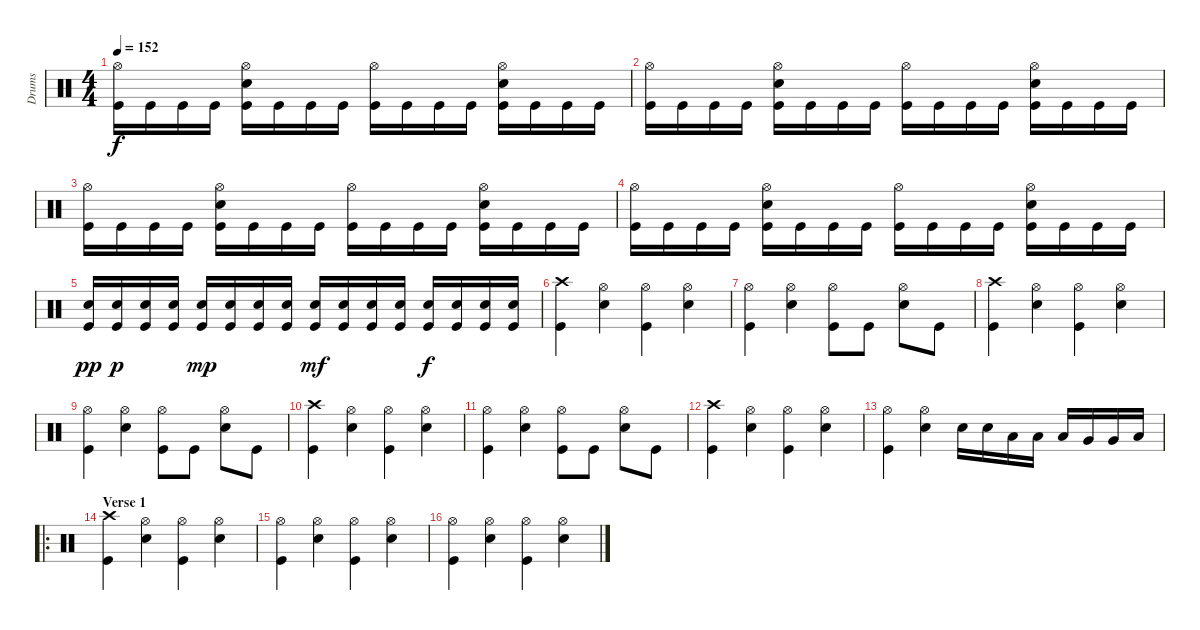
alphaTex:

\track ("Drums" "Drums") {instrument percussion}
\staff {score}
\articulation defaults
\ts (4 4)
\tempo 152
\clef neutral
\ks c
("Hi-Hat (open)" "Kick (hit)").16{dy f} "Kick (hit)".16 "Kick (hit)".16 "Kick (hit)".16 ("Hi-Hat (open)" "Snare (hit) 2" "Kick (hit)").16 "Kick (hit)".16 "Kick (hit)".16 "Kick (hit)".16 ("Hi-Hat (open)" "Kick (hit)").16 "Kick (hit)".16 "Kick (hit)".16 "Kick (hit)".16 ("Hi-Hat (open)" "Snare (hit) 2" "Kick (hit)").16 "Kick (hit)".16 "Kick (hit)".16 "Kick (hit)".16 |
("Hi-Hat (open)" "Kick (hit)").16 "Kick (hit)".16 "Kick (hit)".16 "Kick (hit)".16 ("Hi-Hat (open)" "Snare (hit) 2" "Kick (hit)").16 "Kick (hit)".16 "Kick (hit)".16 "Kick (hit)".16 ("Hi-Hat (open)" "Kick (hit)").16 "Kick (hit)".16 "Kick (hit)".16 "Kick (hit)".16 ("Hi-Hat (open)" "Snare (hit) 2" "Kick (hit)").16 "Kick (hit)".16 "Kick (hit)".16 "Kick (hit)".16 |
("Hi-Hat (open)" "Kick (hit)").16 "Kick (hit)".16 "Kick (hit)".16 "Kick (hit)".16 ("Hi-Hat (open)" "Snare (hit) 2" "Kick (hit)").16 "Kick (hit)".16 "Kick (hit)".16 "Kick (hit)".16 ("Hi-Hat (open)" "Kick (hit)").16 "Kick (hit)".16 "Kick (hit)".16 "Kick (hit)".16 ("Hi-Hat (open)" "Snare (hit) 2" "Kick (hit)").16 "Kick (hit)".16 "Kick (hit)".16 "Kick (hit)".16 |
("Hi-Hat (open)" "Kick (hit)").16 "Kick (hit)".16 "Kick (hit)".16 "Kick (hit)".16 ("Hi-Hat (open)" "Snare (hit) 2" "Kick (hit)").16 "Kick (hit)".16 "Kick (hit)".16 "Kick (hit)".16 ("Hi-Hat (open)" "Kick (hit)").16 "Kick (hit)".16 "Kick (hit)".16 "Kick (hit)".16 ("Hi-Hat (open)" "Snare (hit) 2" "Kick (hit)").16 "Kick (hit)".16 "Kick (hit)".16 "Kick (hit)".16 |
("Snare (hit) 2" "Kick (hit)").16{dy pp} ("Snare (hit) 2" "Kick (hit)").16{dy p} ("Snare (hit) 2" "Kick (hit)").16 ("Snare (hit) 2" "Kick (hit)").16 ("Snare (hit) 2" "Kick (hit)").16{dy mp} ("Snare (hit) 2" "Kick (hit)").16 ("Snare (hit) 2" "Kick (hit)").16 ("Snare (hit) 2" "Kick (hit)").16 ("Snare (hit) 2" "Kick (hit)").16{dy mf} ("Snare (hit) 2" "Kick (hit)").16 ("Snare (hit) 2" "Kick (hit)").16 ("Snare (hit) 2" "Kick (hit)").16 ("Snare (hit) 2" "Kick (hit)").16{dy f} ("Snare (hit) 2" "Kick (hit)").16 ("Snare (hit) 2" "Kick (hit)").16 ("Snare (hit) 2" "Kick (hit)").16 |
("Crash high (hit)" "Kick (hit)").4 ("Hi-Hat (open)" "Snare (hit) 2").4 ("Hi-Hat (open)" "Kick (hit)").4 ("Hi-Hat (open)" "Snare (hit) 2").4 |
("Hi-Hat (open)" "Kick (hit)").4 ("Hi-Hat (open)" "Snare (hit) 2").4 ("Hi-Hat (open)" "Kick (hit)").8 "Kick (hit)".8 ("Hi-Hat (open)" "Snare (hit) 2").8 "Kick (hit)".8 |
("Crash high (hit)" "Kick (hit)").4 ("Hi-Hat (open)" "Snare (hit) 2").4 ("Hi-Hat (open)" "Kick (hit)").4 ("Hi-Hat (open)" "Snare (hit) 2").4 |
("Hi-Hat (open)" "Kick (hit)").4 ("Hi-Hat (open)" "Snare (hit) 2").4 ("Hi-Hat (open)" "Kick (hit)").8 "Kick (hit)".8 ("Hi-Hat (open)" "Snare (hit) 2").8 "Kick (hit)".8 |
("Crash high (hit)" "Kick (hit)").4 ("Hi-Hat (open)" "Snare (hit) 2").4 ("Hi-Hat (open)" "Kick (hit)").4 ("Hi-Hat (open)" "Snare (hit) 2").4 |
("Hi-Hat (open)" "Kick (hit)").4 ("Hi-Hat (open)" "Snare (hit) 2").4 ("Hi-Hat (open)" "Kick (hit)").8 "Kick (hit)".8 ("Hi-Hat (open)" "Snare (hit) 2").8 "Kick (hit)".8 |
("Crash high (hit)" "Kick (hit)").4 ("Hi-Hat (open)" "Snare (hit) 2").4 ("Hi-Hat (open)" "Kick (hit)").4 ("Hi-Hat (open)" "Snare (hit) 2").4 |
("Hi-Hat (open)" "Kick (hit)").4 ("Hi-Hat (open)" "Snare (hit) 2").4 "Snare (hit) 2".16 "Snare (hit) 2".16 "Low Tom (hit)".16 "Low Tom (hit)".16 "Low Tom (hit)".16 "Very Low Tom (hit)".16 "Very Low Tom (hit)".16 "Low Floor Tom (hit)".16 |
\ro
\section ("" "Verse 1")
("Crash high (hit)" "Kick (hit)").4 ("Hi-Hat (open)" "Snare (hit) 2").4 ("Hi-Hat (open)" "Kick (hit)").4 ("Hi-Hat (open)" "Snare (hit) 2").4 |
("Hi-Hat (open)" "Kick (hit)").4 ("Hi-Hat (open)" "Snare (hit) 2").4 ("Hi-Hat (open)" "Kick (hit)").4 ("Hi-Hat (open)" "Snare (hit) 2").4 |
("Hi-Hat (open)" "Kick (hit)").4 ("Hi-Hat (open)" "Snare (hit) 2").4 ("Hi-Hat (open)" "Kick (hit)").4 ("Hi-Hat (open)" "Snare (hit) 2").4
